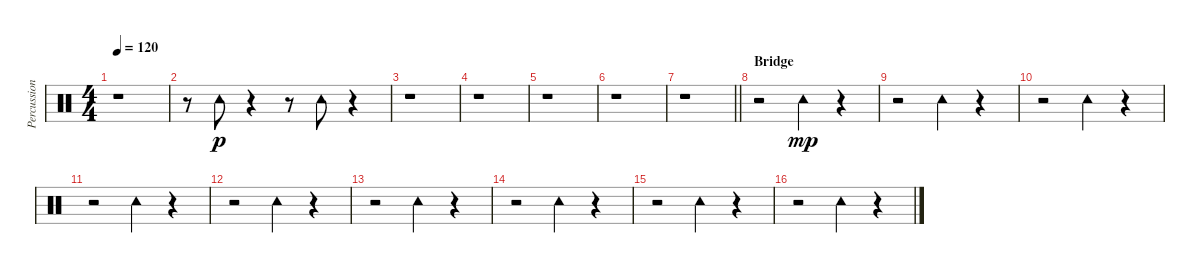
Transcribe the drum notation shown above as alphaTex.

\track ("Percussion" "Percussion") {instrument percussion}
\staff {score}
\articulation defaults
\ts (4 4)
\tempo 120
\clef neutral
\ks c
r.1{dy mp} |
r.8 "Tambourine (hit)".8{dy p} r.4 r.8 "Tambourine (hit)".8 r.4 |
r.1 |
r.1 |
r.1 |
r.1 |
\barLineRight lightlight
r.1 |
\section ("" "Bridge")
r.2 "Tambourine (hit)".4{dy mp} r.4 |
r.2 "Tambourine (hit)".4 r.4 |
r.2 "Tambourine (hit)".4 r.4 |
r.2 "Tambourine (hit)".4 r.4 |
r.2 "Tambourine (hit)".4 r.4 |
r.2 "Tambourine (hit)".4 r.4 |
r.2 "Tambourine (hit)".4 r.4 |
r.2 "Tambourine (hit)".4 r.4 |
r.2 "Tambourine (hit)".4 r.4
